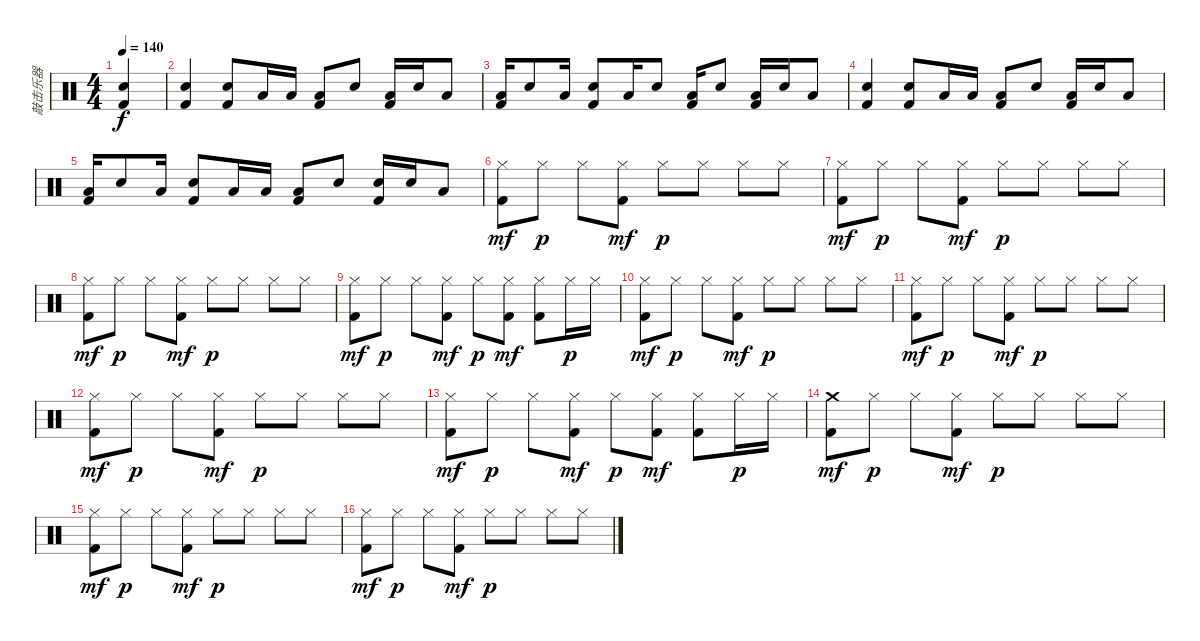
\track ("敲击乐器" "敲击乐器") {instrument percussion}
\staff {score}
\articulation defaults
\ts (4 4)
\tempo 140
\clef neutral
\ks c
("Snare (hit) 2" "Kick (hit) 2").4{dy f} |
("Snare (hit) 2" "Kick (hit) 2").4 ("Snare (hit) 2" "Kick (hit) 2").8 "Low Tom (hit)".16 "Low Tom (hit)".16 ("Low Tom (hit)" "Kick (hit) 2").8 "Snare (hit) 2".8 ("Low Tom (hit)" "Kick (hit) 2").16 "Snare (hit) 2".16 "Low Tom (hit)".8 |
("Low Tom (hit)" "Kick (hit) 2").16 "Snare (hit) 2".8 "Low Tom (hit)".16 ("Snare (hit) 2" "Kick (hit) 2").8 "Low Tom (hit)".16 "Snare (hit) 2".8 ("Low Tom (hit)" "Kick (hit) 2").16 "Snare (hit) 2".8 ("Low Tom (hit)" "Kick (hit) 2").16 "Snare (hit) 2".16 "Low Tom (hit)".8 |
("Snare (hit) 2" "Kick (hit) 2").4 ("Snare (hit) 2" "Kick (hit) 2").8 "Low Tom (hit)".16 "Low Tom (hit)".16 ("Low Tom (hit)" "Kick (hit) 2").8 "Snare (hit) 2".8 ("Low Tom (hit)" "Kick (hit) 2").16 "Snare (hit) 2".16 "Low Tom (hit)".8 |
("Low Tom (hit)" "Kick (hit) 2").16 "Snare (hit) 2".8 "Low Tom (hit)".16 ("Snare (hit) 2" "Kick (hit) 2").8 "Low Tom (hit)".16 "Low Tom (hit)".16 ("Low Tom (hit)" "Kick (hit) 2").8 "Snare (hit) 2".8 ("Snare (hit) 2" "Kick (hit) 2").16 "Snare (hit) 2".16 "Low Floor Tom (hit)".8 |
("Hi-Hat (closed)" "Kick (hit) 2").8{dy mf} "Hi-Hat (closed)".8{dy p} "Hi-Hat (closed)".8 ("Hi-Hat (closed)" "Kick (hit) 2").8{dy mf} "Hi-Hat (closed)".8{dy p} "Hi-Hat (closed)".8 "Hi-Hat (closed)".8 "Hi-Hat (closed)".8 |
("Hi-Hat (closed)" "Kick (hit) 2").8{dy mf} "Hi-Hat (closed)".8{dy p} "Hi-Hat (closed)".8 ("Hi-Hat (closed)" "Kick (hit) 2").8{dy mf} "Hi-Hat (closed)".8{dy p} "Hi-Hat (closed)".8 "Hi-Hat (closed)".8 "Hi-Hat (closed)".8 |
("Hi-Hat (closed)" "Kick (hit) 2").8{dy mf} "Hi-Hat (closed)".8{dy p} "Hi-Hat (closed)".8 ("Hi-Hat (closed)" "Kick (hit) 2").8{dy mf} "Hi-Hat (closed)".8{dy p} "Hi-Hat (closed)".8 "Hi-Hat (closed)".8 "Hi-Hat (closed)".8 |
("Hi-Hat (closed)" "Kick (hit) 2").8{dy mf} "Hi-Hat (closed)".8{dy p} "Hi-Hat (closed)".8 ("Hi-Hat (closed)" "Kick (hit) 2").8{dy mf} "Hi-Hat (closed)".8{dy p} ("Hi-Hat (closed)" "Kick (hit) 2").8{dy mf} ("Hi-Hat (closed)" "Kick (hit) 2").8 "Hi-Hat (closed)".16{dy p} "Hi-Hat (closed)".16 |
("Hi-Hat (closed)" "Kick (hit) 2").8{dy mf} "Hi-Hat (closed)".8{dy p} "Hi-Hat (closed)".8 ("Hi-Hat (closed)" "Kick (hit) 2").8{dy mf} "Hi-Hat (closed)".8{dy p} "Hi-Hat (closed)".8 "Hi-Hat (closed)".8 "Hi-Hat (closed)".8 |
("Hi-Hat (closed)" "Kick (hit) 2").8{dy mf} "Hi-Hat (closed)".8{dy p} "Hi-Hat (closed)".8 ("Hi-Hat (closed)" "Kick (hit) 2").8{dy mf} "Hi-Hat (closed)".8{dy p} "Hi-Hat (closed)".8 "Hi-Hat (closed)".8 "Hi-Hat (closed)".8 |
("Hi-Hat (closed)" "Kick (hit) 2").8{dy mf} "Hi-Hat (closed)".8{dy p} "Hi-Hat (closed)".8 ("Hi-Hat (closed)" "Kick (hit) 2").8{dy mf} "Hi-Hat (closed)".8{dy p} "Hi-Hat (closed)".8 "Hi-Hat (closed)".8 "Hi-Hat (closed)".8 |
("Hi-Hat (closed)" "Kick (hit) 2").8{dy mf} "Hi-Hat (closed)".8{dy p} "Hi-Hat (closed)".8 ("Hi-Hat (closed)" "Kick (hit) 2").8{dy mf} "Hi-Hat (closed)".8{dy p} ("Hi-Hat (closed)" "Kick (hit) 2").8{dy mf} ("Hi-Hat (closed)" "Kick (hit) 2").8 "Hi-Hat (closed)".16{dy p} "Hi-Hat (closed)".16 |
("Crash medium (hit)" "Kick (hit) 2").8{dy mf} "Hi-Hat (closed)".8{dy p} "Hi-Hat (closed)".8 ("Hi-Hat (closed)" "Kick (hit) 2").8{dy mf} "Hi-Hat (closed)".8{dy p} "Hi-Hat (closed)".8 "Hi-Hat (closed)".8 "Hi-Hat (closed)".8 |
("Hi-Hat (closed)" "Kick (hit) 2").8{dy mf} "Hi-Hat (closed)".8{dy p} "Hi-Hat (closed)".8 ("Hi-Hat (closed)" "Kick (hit) 2").8{dy mf} "Hi-Hat (closed)".8{dy p} "Hi-Hat (closed)".8 "Hi-Hat (closed)".8 "Hi-Hat (closed)".8 |
("Hi-Hat (closed)" "Kick (hit) 2").8{dy mf} "Hi-Hat (closed)".8{dy p} "Hi-Hat (closed)".8 ("Hi-Hat (closed)" "Kick (hit) 2").8{dy mf} "Hi-Hat (closed)".8{dy p} "Hi-Hat (closed)".8 "Hi-Hat (closed)".8 "Hi-Hat (closed)".8
